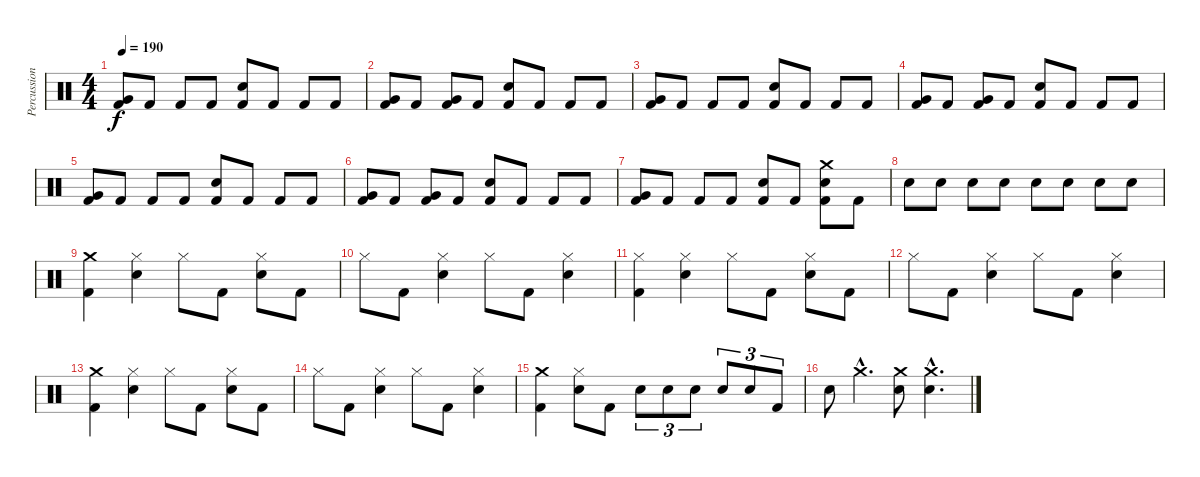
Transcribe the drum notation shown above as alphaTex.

\track ("Percussion" "Percussion") {instrument percussion}
\staff {score}
\articulation defaults
\ts (4 4)
\tempo 190
\clef neutral
\ks c
("Very Low Tom (hit)" "Kick (hit) 2").8{dy f} "Kick (hit) 2".8 "Kick (hit) 2".8 "Kick (hit) 2".8 ("Snare (hit) 2" "Kick (hit) 2").8 "Kick (hit) 2".8 "Kick (hit) 2".8 "Kick (hit) 2".8 |
("Very Low Tom (hit)" "Kick (hit) 2").8 "Kick (hit) 2".8 ("Very Low Tom (hit)" "Kick (hit) 2").8 "Kick (hit) 2".8 ("Snare (hit) 2" "Kick (hit) 2").8 "Kick (hit) 2".8 "Kick (hit) 2".8 "Kick (hit) 2".8 |
("Very Low Tom (hit)" "Kick (hit) 2").8 "Kick (hit) 2".8 "Kick (hit) 2".8 "Kick (hit) 2".8 ("Snare (hit) 2" "Kick (hit) 2").8 "Kick (hit) 2".8 "Kick (hit) 2".8 "Kick (hit) 2".8 |
("Very Low Tom (hit)" "Kick (hit) 2").8 "Kick (hit) 2".8 ("Very Low Tom (hit)" "Kick (hit) 2").8 "Kick (hit) 2".8 ("Snare (hit) 2" "Kick (hit) 2").8 "Kick (hit) 2".8 "Kick (hit) 2".8 "Kick (hit) 2".8 |
("Very Low Tom (hit)" "Kick (hit) 2").8 "Kick (hit) 2".8 "Kick (hit) 2".8 "Kick (hit) 2".8 ("Snare (hit) 2" "Kick (hit) 2").8 "Kick (hit) 2".8 "Kick (hit) 2".8 "Kick (hit) 2".8 |
("Very Low Tom (hit)" "Kick (hit) 2").8 "Kick (hit) 2".8 ("Very Low Tom (hit)" "Kick (hit) 2").8 "Kick (hit) 2".8 ("Snare (hit) 2" "Kick (hit) 2").8 "Kick (hit) 2".8 "Kick (hit) 2".8 "Kick (hit) 2".8 |
("Very Low Tom (hit)" "Kick (hit) 2").8 "Kick (hit) 2".8 "Kick (hit) 2".8 "Kick (hit) 2".8 ("Snare (hit) 2" "Kick (hit) 2").8 "Kick (hit) 2".8 ("Crash medium (hit)" "Snare (hit) 2" "Kick (hit) 2").8 "Kick (hit) 2".8 |
"Snare (hit) 2".8 "Snare (hit) 2".8 "Snare (hit) 2".8 "Snare (hit) 2".8 "Snare (hit) 2".8 "Snare (hit) 2".8 "Snare (hit) 2".8 "Snare (hit) 2".8 |
("Crash medium (hit)" "Kick (hit) 2").4 ("Hi-Hat (closed)" "Snare (hit) 2").4 "Hi-Hat (closed)".8 "Kick (hit) 2".8 ("Hi-Hat (closed)" "Snare (hit) 2").8 "Kick (hit) 2".8 |
"Hi-Hat (closed)".8 "Kick (hit) 2".8 ("Hi-Hat (closed)" "Snare (hit) 2").4 "Hi-Hat (closed)".8 "Kick (hit) 2".8 ("Hi-Hat (closed)" "Snare (hit) 2").4 |
("Hi-Hat (closed)" "Kick (hit) 2").4 ("Hi-Hat (closed)" "Snare (hit) 2").4 "Hi-Hat (closed)".8 "Kick (hit) 2".8 ("Hi-Hat (closed)" "Snare (hit) 2").8 "Kick (hit) 2".8 |
"Hi-Hat (closed)".8 "Kick (hit) 2".8 ("Hi-Hat (closed)" "Snare (hit) 2").4 "Hi-Hat (closed)".8 "Kick (hit) 2".8 ("Hi-Hat (closed)" "Snare (hit) 2").4 |
("Crash medium (hit)" "Kick (hit) 2").4 ("Hi-Hat (closed)" "Snare (hit) 2").4 "Hi-Hat (closed)".8 "Kick (hit) 2".8 ("Hi-Hat (closed)" "Snare (hit) 2").8 "Kick (hit) 2".8 |
"Hi-Hat (closed)".8 "Kick (hit) 2".8 ("Hi-Hat (closed)" "Snare (hit) 2").4 "Hi-Hat (closed)".8 "Kick (hit) 2".8 ("Hi-Hat (closed)" "Snare (hit) 2").4 |
("Crash medium (hit)" "Kick (hit) 2").4 ("Hi-Hat (closed)" "Snare (hit) 2").8 "Kick (hit) 2".8 "Snare (hit) 2".8{tu (3 2)} "Snare (hit) 2".8{tu (3 2)} "Snare (hit) 2".8{tu (3 2)} "Snare (hit) 2".8{tu (3 2)} "Snare (hit) 2".8{tu (3 2)} "Kick (hit) 2".8{tu (3 2)} |
"Snare (hit) 2".8 "Crash medium (hit)"{hac}.4{d} ("Crash medium (hit)" "Snare (hit) 2").8 ("Crash medium (hit)"{hac} "Snare (hit) 2"{hac}).4{d}
